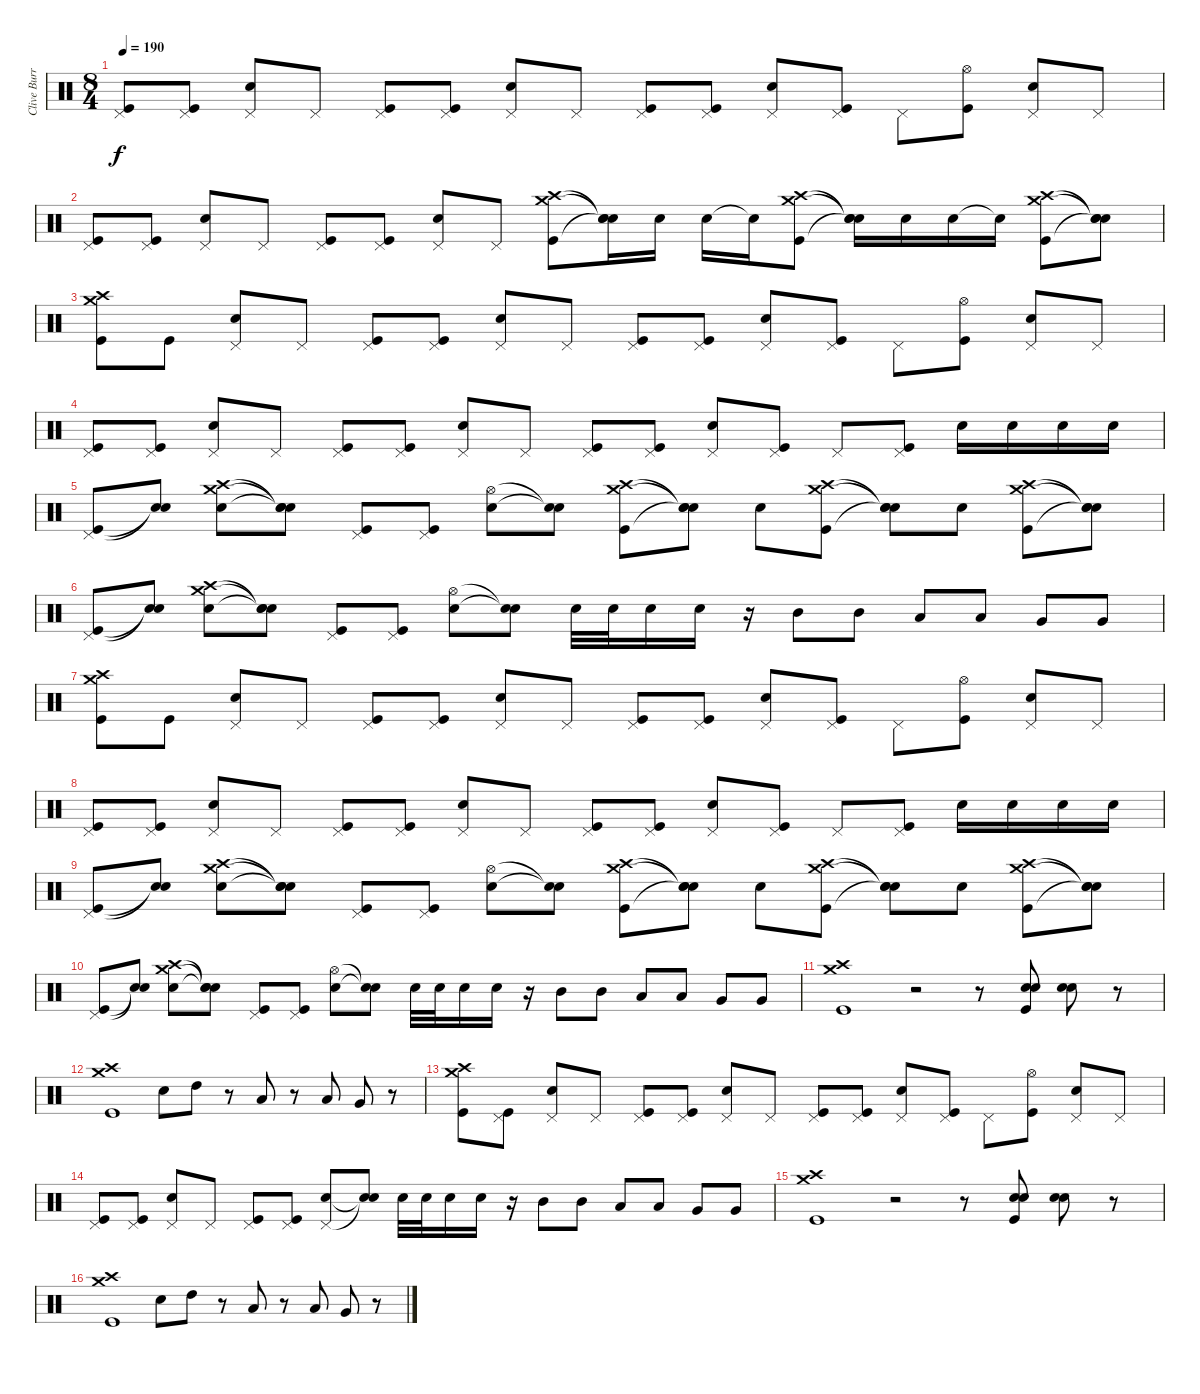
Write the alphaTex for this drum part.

\track ("Clive Burr" "Clive Burr") {instrument percussion}
\staff {score}
\articulation defaults
\ts (8 4)
\tempo 190
\clef neutral
\ks c
("Pedal Hi-Hat (hit)" "Kick (hit)").8{dy f} ("Pedal Hi-Hat (hit)" "Kick (hit)").8 ("Pedal Hi-Hat (hit)" "Snare (hit) 2").8 "Pedal Hi-Hat (hit)".8 ("Pedal Hi-Hat (hit)" "Kick (hit)").8 ("Pedal Hi-Hat (hit)" "Kick (hit)").8 ("Pedal Hi-Hat (hit)" "Snare (hit) 2").8 "Pedal Hi-Hat (hit)".8 ("Pedal Hi-Hat (hit)" "Kick (hit)").8 ("Pedal Hi-Hat (hit)" "Kick (hit)").8 ("Pedal Hi-Hat (hit)" "Snare (hit) 2").8 ("Pedal Hi-Hat (hit)" "Kick (hit)").8 "Pedal Hi-Hat (hit)".8 ("Hi-Hat (open)" "Kick (hit)").8 ("Pedal Hi-Hat (hit)" "Snare (hit) 2").8 "Pedal Hi-Hat (hit)".8 |
("Pedal Hi-Hat (hit)" "Kick (hit)").8 ("Pedal Hi-Hat (hit)" "Kick (hit)").8 ("Pedal Hi-Hat (hit)" "Snare (hit) 2").8 "Pedal Hi-Hat (hit)".8 ("Pedal Hi-Hat (hit)" "Kick (hit)").8 ("Pedal Hi-Hat (hit)" "Kick (hit)").8 ("Pedal Hi-Hat (hit)" "Snare (hit) 2").8 "Pedal Hi-Hat (hit)".8 ("Crash medium (hit)" "Crash high (hit)" "Kick (hit)").8 ("Snare (hit)"{t} "Snare (hit)"{t} "Snare (hit)"{t}).16 "Snare (hit) 2".16 "Snare (hit) 2".16 "Snare (hit)"{t}.16 ("Crash medium (hit)" "Crash high (hit)" "Kick (hit)").8 ("Snare (hit)"{t} "Snare (hit)"{t} "Snare (hit)"{t}).16 "Snare (hit) 2".16 "Snare (hit) 2".16 "Snare (hit)"{t}.16 ("Crash medium (hit)" "Crash high (hit)" "Kick (hit)").8 ("Snare (hit)"{t} "Snare (hit)"{t} "Snare (hit)"{t}).8 |
("Crash medium (hit)" "Crash high (hit)" "Kick (hit)").8 "Kick (hit)".8 ("Pedal Hi-Hat (hit)" "Snare (hit) 2").8 "Pedal Hi-Hat (hit)".8 ("Pedal Hi-Hat (hit)" "Kick (hit)").8 ("Pedal Hi-Hat (hit)" "Kick (hit)").8 ("Pedal Hi-Hat (hit)" "Snare (hit) 2").8 "Pedal Hi-Hat (hit)".8 ("Pedal Hi-Hat (hit)" "Kick (hit)").8 ("Pedal Hi-Hat (hit)" "Kick (hit)").8 ("Pedal Hi-Hat (hit)" "Snare (hit) 2").8 ("Pedal Hi-Hat (hit)" "Kick (hit)").8 "Pedal Hi-Hat (hit)".8 ("Hi-Hat (open)" "Kick (hit)").8 ("Pedal Hi-Hat (hit)" "Snare (hit) 2").8 "Pedal Hi-Hat (hit)".8 |
("Pedal Hi-Hat (hit)" "Kick (hit)").8 ("Pedal Hi-Hat (hit)" "Kick (hit)").8 ("Pedal Hi-Hat (hit)" "Snare (hit) 2").8 "Pedal Hi-Hat (hit)".8 ("Pedal Hi-Hat (hit)" "Kick (hit)").8 ("Pedal Hi-Hat (hit)" "Kick (hit)").8 ("Pedal Hi-Hat (hit)" "Snare (hit) 2").8 "Pedal Hi-Hat (hit)".8 ("Pedal Hi-Hat (hit)" "Kick (hit)").8 ("Pedal Hi-Hat (hit)" "Kick (hit)").8 ("Pedal Hi-Hat (hit)" "Snare (hit) 2").8 ("Pedal Hi-Hat (hit)" "Kick (hit)").8 "Pedal Hi-Hat (hit)".8 ("Pedal Hi-Hat (hit)" "Kick (hit)").8 "Snare (hit) 2".16 "Snare (hit) 2".16 "Snare (hit) 2".16 "Snare (hit) 2".16 |
("Pedal Hi-Hat (hit)" "Kick (hit)").8 ("Snare (hit)"{t} "Snare (hit)"{t}).8 ("Crash medium (hit)" "Crash high (hit)" "Snare (hit) 2").8 ("Snare (hit)"{t} "Snare (hit)"{t} "Snare (hit)"{t}).8 ("Pedal Hi-Hat (hit)" "Kick (hit)").8 ("Pedal Hi-Hat (hit)" "Kick (hit)").8 ("Hi-Hat (open)" "Snare (hit) 2").8 ("Snare (hit)"{t} "Snare (hit)"{t}).8 ("Crash medium (hit)" "Crash high (hit)" "Kick (hit)").8 ("Snare (hit)"{t} "Snare (hit)"{t} "Snare (hit)"{t}).8 "Snare (hit) 2".8 ("Crash medium (hit)" "Crash high (hit)" "Kick (hit)").8 ("Snare (hit)"{t} "Snare (hit)"{t} "Snare (hit)"{t}).8 "Snare (hit) 2".8 ("Crash medium (hit)" "Crash high (hit)" "Kick (hit)").8 ("Snare (hit)"{t} "Snare (hit)"{t} "Snare (hit)"{t}).8 |
("Pedal Hi-Hat (hit)" "Kick (hit)").8 ("Snare (hit)"{t} "Snare (hit)"{t}).8 ("Crash medium (hit)" "Crash high (hit)" "Snare (hit) 2").8 ("Snare (hit)"{t} "Snare (hit)"{t} "Snare (hit)"{t}).8 ("Pedal Hi-Hat (hit)" "Kick (hit)").8 ("Pedal Hi-Hat (hit)" "Kick (hit)").8 ("Hi-Hat (open)" "Snare (hit) 2").8 ("Snare (hit)"{t} "Snare (hit)"{t}).8 "Snare (hit) 2".32 "Snare (hit) 2".32 "Snare (hit) 2".16 "Snare (hit) 2".16 r.16 "Mid Tom (hit)".8 "Mid Tom (hit)".8 "Low Tom (hit)".8 "Low Tom (hit)".8 "Very Low Tom (hit)".8 "Very Low Tom (hit)".8 |
("Crash medium (hit)" "Crash high (hit)" "Kick (hit)").8 "Kick (hit)".8 ("Pedal Hi-Hat (hit)" "Snare (hit) 2").8 "Pedal Hi-Hat (hit)".8 ("Pedal Hi-Hat (hit)" "Kick (hit)").8 ("Pedal Hi-Hat (hit)" "Kick (hit)").8 ("Pedal Hi-Hat (hit)" "Snare (hit) 2").8 "Pedal Hi-Hat (hit)".8 ("Pedal Hi-Hat (hit)" "Kick (hit)").8 ("Pedal Hi-Hat (hit)" "Kick (hit)").8 ("Pedal Hi-Hat (hit)" "Snare (hit) 2").8 ("Pedal Hi-Hat (hit)" "Kick (hit)").8 "Pedal Hi-Hat (hit)".8 ("Hi-Hat (open)" "Kick (hit)").8 ("Pedal Hi-Hat (hit)" "Snare (hit) 2").8 "Pedal Hi-Hat (hit)".8 |
("Pedal Hi-Hat (hit)" "Kick (hit)").8 ("Pedal Hi-Hat (hit)" "Kick (hit)").8 ("Pedal Hi-Hat (hit)" "Snare (hit) 2").8 "Pedal Hi-Hat (hit)".8 ("Pedal Hi-Hat (hit)" "Kick (hit)").8 ("Pedal Hi-Hat (hit)" "Kick (hit)").8 ("Pedal Hi-Hat (hit)" "Snare (hit) 2").8 "Pedal Hi-Hat (hit)".8 ("Pedal Hi-Hat (hit)" "Kick (hit)").8 ("Pedal Hi-Hat (hit)" "Kick (hit)").8 ("Pedal Hi-Hat (hit)" "Snare (hit) 2").8 ("Pedal Hi-Hat (hit)" "Kick (hit)").8 "Pedal Hi-Hat (hit)".8 ("Pedal Hi-Hat (hit)" "Kick (hit)").8 "Snare (hit) 2".16 "Snare (hit) 2".16 "Snare (hit) 2".16 "Snare (hit) 2".16 |
("Pedal Hi-Hat (hit)" "Kick (hit)").8 ("Snare (hit)"{t} "Snare (hit)"{t}).8 ("Crash medium (hit)" "Crash high (hit)" "Snare (hit) 2").8 ("Snare (hit)"{t} "Snare (hit)"{t} "Snare (hit)"{t}).8 ("Pedal Hi-Hat (hit)" "Kick (hit)").8 ("Pedal Hi-Hat (hit)" "Kick (hit)").8 ("Hi-Hat (open)" "Snare (hit) 2").8 ("Snare (hit)"{t} "Snare (hit)"{t}).8 ("Crash medium (hit)" "Crash high (hit)" "Kick (hit)").8 ("Snare (hit)"{t} "Snare (hit)"{t} "Snare (hit)"{t}).8 "Snare (hit) 2".8 ("Crash medium (hit)" "Crash high (hit)" "Kick (hit)").8 ("Snare (hit)"{t} "Snare (hit)"{t} "Snare (hit)"{t}).8 "Snare (hit) 2".8 ("Crash medium (hit)" "Crash high (hit)" "Kick (hit)").8 ("Snare (hit)"{t} "Snare (hit)"{t} "Snare (hit)"{t}).8 |
("Pedal Hi-Hat (hit)" "Kick (hit)").8 ("Snare (hit)"{t} "Snare (hit)"{t}).8 ("Crash medium (hit)" "Crash high (hit)" "Snare (hit) 2").8 ("Snare (hit)"{t} "Snare (hit)"{t} "Snare (hit)"{t}).8 ("Pedal Hi-Hat (hit)" "Kick (hit)").8 ("Pedal Hi-Hat (hit)" "Kick (hit)").8 ("Hi-Hat (open)" "Snare (hit) 2").8 ("Snare (hit)"{t} "Snare (hit)"{t}).8 "Snare (hit) 2".32 "Snare (hit) 2".32 "Snare (hit) 2".16 "Snare (hit) 2".16 r.16 "Mid Tom (hit)".8 "Mid Tom (hit)".8 "Low Tom (hit)".8 "Low Tom (hit)".8 "Very Low Tom (hit)".8 "Very Low Tom (hit)".8 |
("Crash medium (hit)" "Crash high (hit)" "Kick (hit)").1 r.2 r.8 ("Snare (hit) 2" "Snare (hit) 2" "Kick (hit)").8 ("Snare (hit) 2" "Snare (hit) 2").8 r.8 |
("Crash medium (hit)" "Crash high (hit)" "Kick (hit)").1 "Snare (hit) 2".8 "High Tom (hit)".8 r.8 "Low Tom (hit)".8 r.8 "Low Tom (hit)".8 "Very Low Tom (hit)".8 r.8 |
("Crash medium (hit)" "Crash high (hit)" "Kick (hit)").8 ("Pedal Hi-Hat (hit)" "Kick (hit)").8 ("Pedal Hi-Hat (hit)" "Snare (hit) 2").8 "Pedal Hi-Hat (hit)".8 ("Pedal Hi-Hat (hit)" "Kick (hit)").8 ("Pedal Hi-Hat (hit)" "Kick (hit)").8 ("Pedal Hi-Hat (hit)" "Snare (hit) 2").8 "Pedal Hi-Hat (hit)".8 ("Pedal Hi-Hat (hit)" "Kick (hit)").8 ("Pedal Hi-Hat (hit)" "Kick (hit)").8 ("Pedal Hi-Hat (hit)" "Snare (hit) 2").8 ("Pedal Hi-Hat (hit)" "Kick (hit)").8 "Pedal Hi-Hat (hit)".8 ("Hi-Hat (open)" "Kick (hit)").8 ("Pedal Hi-Hat (hit)" "Snare (hit) 2").8 "Pedal Hi-Hat (hit)".8 |
("Pedal Hi-Hat (hit)" "Kick (hit)").8 ("Pedal Hi-Hat (hit)" "Kick (hit)").8 ("Pedal Hi-Hat (hit)" "Snare (hit) 2").8 "Pedal Hi-Hat (hit)".8 ("Pedal Hi-Hat (hit)" "Kick (hit)").8 ("Pedal Hi-Hat (hit)" "Kick (hit)").8 ("Pedal Hi-Hat (hit)" "Snare (hit) 2").8 ("Snare (hit)"{t} "Snare (hit)"{t}).8 "Snare (hit) 2".32 "Snare (hit) 2".32 "Snare (hit) 2".16 "Snare (hit) 2".16 r.16 "Mid Tom (hit)".8 "Mid Tom (hit)".8 "Low Tom (hit)".8 "Low Tom (hit)".8 "Very Low Tom (hit)".8 "Very Low Tom (hit)".8 |
("Crash medium (hit)" "Crash high (hit)" "Kick (hit)").1 r.2 r.8 ("Snare (hit) 2" "Snare (hit) 2" "Kick (hit)").8 ("Snare (hit) 2" "Snare (hit) 2").8 r.8 |
("Crash medium (hit)" "Crash high (hit)" "Kick (hit)").1 "Snare (hit) 2".8 "High Tom (hit)".8 r.8 "Low Tom (hit)".8 r.8 "Low Tom (hit)".8 "Very Low Tom (hit)".8 r.8
